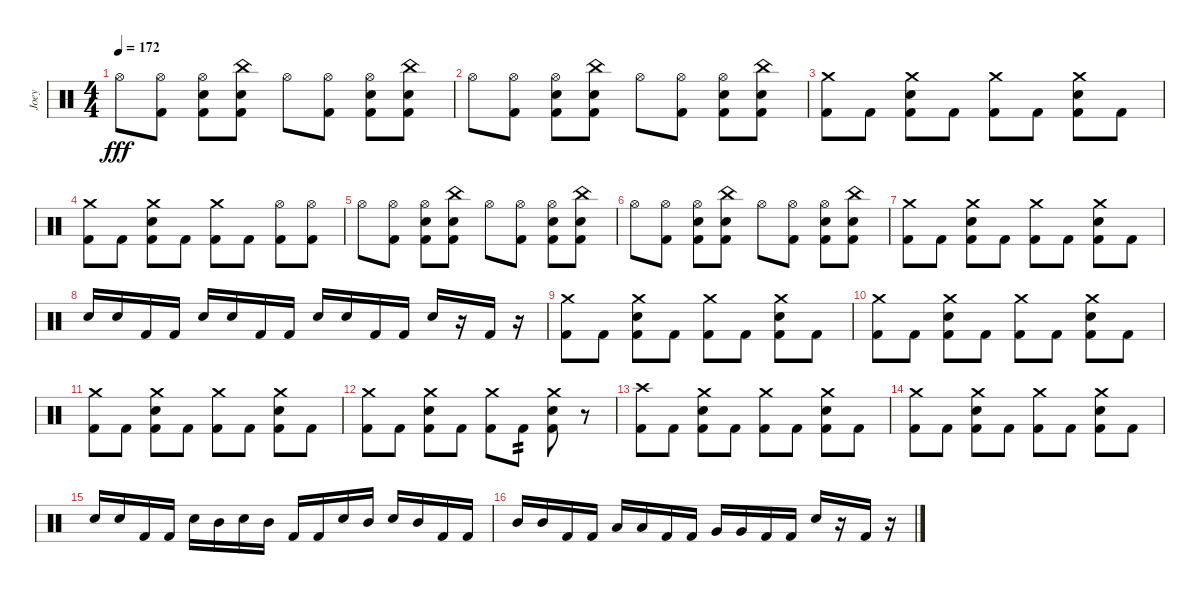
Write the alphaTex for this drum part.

\track ("Joey" "Joey") {instrument percussion}
\staff {score}
\articulation defaults
\ts (4 4)
\tempo 172
\clef neutral
\ks c "Hi-Hat (open)".8{dy fff}
("Hi-Hat (open)" "Kick (hit) 2").8 ("Hi-Hat (open)" "Snare (hit) 2" "Kick (hit) 2").8 ("China (hit)" "Snare (hit) 2" "Kick (hit) 2").8 "Hi-Hat (open)".8 ("Hi-Hat (open)" "Kick (hit) 2").8 ("Hi-Hat (open)" "Snare (hit) 2" "Kick (hit) 2").8 ("China (hit)" "Snare (hit) 2" "Kick (hit) 2").8 |
"Hi-Hat (open)".8 ("Hi-Hat (open)" "Kick (hit) 2").8 ("Hi-Hat (open)" "Snare (hit) 2" "Kick (hit) 2").8 ("China (hit)" "Snare (hit) 2" "Kick (hit) 2").8 "Hi-Hat (open)".8 ("Hi-Hat (open)" "Kick (hit) 2").8 ("Hi-Hat (open)" "Snare (hit) 2" "Kick (hit) 2").8 ("China (hit)" "Snare (hit) 2" "Kick (hit) 2").8 |
("Crash medium (hit)" "Kick (hit) 2").8 "Kick (hit) 2".8 ("Crash medium (hit)" "Snare (hit) 2" "Kick (hit) 2").8 "Kick (hit) 2".8 ("Crash medium (hit)" "Kick (hit) 2").8 "Kick (hit) 2".8 ("Crash medium (hit)" "Snare (hit) 2" "Kick (hit) 2").8 "Kick (hit) 2".8 |
("Crash medium (hit)" "Kick (hit) 2").8 "Kick (hit) 2".8 ("Crash medium (hit)" "Snare (hit) 2" "Kick (hit) 2").8 "Kick (hit) 2".8 ("Crash medium (hit)" "Kick (hit) 2").8 "Kick (hit) 2".8 ("Hi-Hat (open)" "Kick (hit) 2").8 ("Hi-Hat (open)" "Kick (hit) 2").8 |
"Hi-Hat (open)".8 ("Hi-Hat (open)" "Kick (hit) 2").8 ("Hi-Hat (open)" "Snare (hit) 2" "Kick (hit) 2").8 ("China (hit)" "Snare (hit) 2" "Kick (hit) 2").8 "Hi-Hat (open)".8 ("Hi-Hat (open)" "Kick (hit) 2").8 ("Hi-Hat (open)" "Snare (hit) 2" "Kick (hit) 2").8 ("China (hit)" "Snare (hit) 2" "Kick (hit) 2").8 |
"Hi-Hat (open)".8 ("Hi-Hat (open)" "Kick (hit) 2").8 ("Hi-Hat (open)" "Snare (hit) 2" "Kick (hit) 2").8 ("China (hit)" "Snare (hit) 2" "Kick (hit) 2").8 "Hi-Hat (open)".8 ("Hi-Hat (open)" "Kick (hit) 2").8 ("Hi-Hat (open)" "Snare (hit) 2" "Kick (hit) 2").8 ("China (hit)" "Snare (hit) 2" "Kick (hit) 2").8 |
("Crash medium (hit)" "Kick (hit) 2").8 "Kick (hit) 2".8 ("Crash medium (hit)" "Snare (hit) 2" "Kick (hit) 2").8 "Kick (hit) 2".8 ("Crash medium (hit)" "Kick (hit) 2").8 "Kick (hit) 2".8 ("Crash medium (hit)" "Snare (hit) 2" "Kick (hit) 2").8 "Kick (hit) 2".8 |
"Snare (hit) 2".16 "Snare (hit) 2".16 "Kick (hit) 2".16 "Kick (hit) 2".16 "Snare (hit) 2".16 "Snare (hit) 2".16 "Kick (hit) 2".16 "Kick (hit) 2".16 "Snare (hit) 2".16 "Snare (hit) 2".16 "Kick (hit) 2".16 "Kick (hit) 2".16 "Snare (hit) 2".16 r.16 "Kick (hit) 2".16 r.16 |
("Crash medium (hit)" "Kick (hit) 2").8 "Kick (hit) 2".8 ("Crash medium (hit)" "Snare (hit) 2" "Kick (hit) 2").8 "Kick (hit) 2".8 ("Crash medium (hit)" "Kick (hit) 2").8 "Kick (hit) 2".8 ("Crash medium (hit)" "Snare (hit) 2" "Kick (hit) 2").8 "Kick (hit) 2".8 |
("Crash medium (hit)" "Kick (hit) 2").8 "Kick (hit) 2".8 ("Crash medium (hit)" "Snare (hit) 2" "Kick (hit) 2").8 "Kick (hit) 2".8 ("Crash medium (hit)" "Kick (hit) 2").8 "Kick (hit) 2".8 ("Crash medium (hit)" "Snare (hit) 2" "Kick (hit) 2").8 "Kick (hit) 2".8 |
("Crash medium (hit)" "Kick (hit) 2").8 "Kick (hit) 2".8 ("Crash medium (hit)" "Snare (hit) 2" "Kick (hit) 2").8 "Kick (hit) 2".8 ("Crash medium (hit)" "Kick (hit) 2").8 "Kick (hit) 2".8 ("Crash medium (hit)" "Snare (hit) 2" "Kick (hit) 2").8 "Kick (hit) 2".8 |
("Crash medium (hit)" "Kick (hit) 2").8 "Kick (hit) 2".8 ("Crash medium (hit)" "Snare (hit) 2" "Kick (hit) 2").8 "Kick (hit) 2".8 ("Crash medium (hit)" "Kick (hit) 2").8 "Kick (hit) 2".8{tp 2} ("Crash medium (hit)" "Snare (hit) 2" "Kick (hit) 2").8 r.8 |
("Crash high (hit)" "Kick (hit) 2").8 "Kick (hit) 2".8 ("Crash medium (hit)" "Snare (hit) 2" "Kick (hit) 2").8 "Kick (hit) 2".8 ("Crash medium (hit)" "Kick (hit) 2").8 "Kick (hit) 2".8 ("Crash medium (hit)" "Snare (hit) 2" "Kick (hit) 2").8 "Kick (hit) 2".8 |
("Crash medium (hit)" "Kick (hit) 2").8 "Kick (hit) 2".8 ("Crash medium (hit)" "Snare (hit) 2" "Kick (hit) 2").8 "Kick (hit) 2".8 ("Crash medium (hit)" "Kick (hit) 2").8 "Kick (hit) 2".8 ("Crash medium (hit)" "Snare (hit) 2" "Kick (hit) 2").8 "Kick (hit) 2".8 |
"Snare (hit) 2".16 "Snare (hit) 2".16 "Kick (hit) 2".16 "Kick (hit) 2".16 "Snare (hit) 2".16 "Mid Tom (hit)".16 "Snare (hit) 2".16 "Mid Tom (hit)".16 "Kick (hit) 2".16 "Kick (hit) 2".16 "Snare (hit) 2".16 "Mid Tom (hit)".16 "Snare (hit) 2".16 "Mid Tom (hit)".16 "Kick (hit) 2".16 "Kick (hit) 2".16 |
"Mid Tom (hit)".16 "Mid Tom (hit)".16 "Kick (hit) 2".16 "Kick (hit) 2".16 "Low Tom (hit)".16 "Low Tom (hit)".16 "Kick (hit) 2".16 "Kick (hit) 2".16 "Very Low Tom (hit)".16 "Very Low Tom (hit)".16 "Kick (hit) 2".16 "Kick (hit) 2".16 "Snare (hit) 2".16 r.16 "Kick (hit) 2".16 r.16
